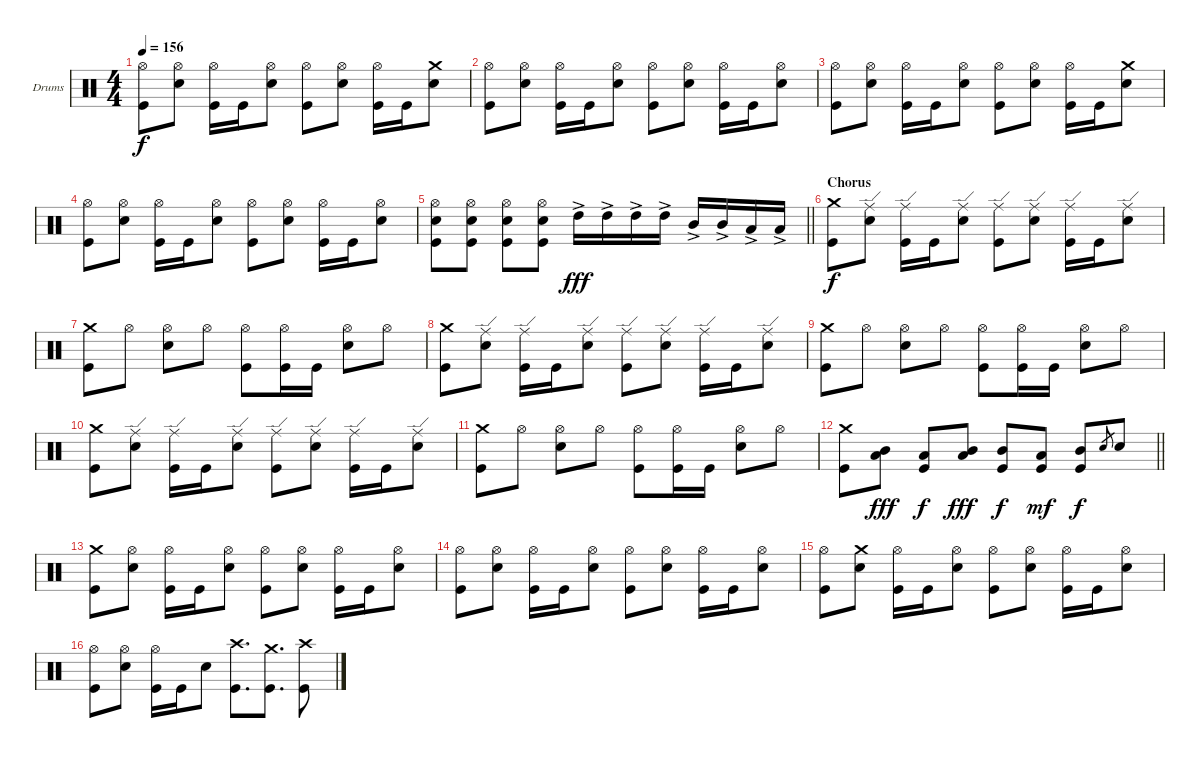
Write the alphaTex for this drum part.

\bracketExtendMode groupsimilarinstruments
\firstSystemTrackNameOrientation horizontal
\otherSystemsTrackNameOrientation horizontal
\track ("Drums" "Drums") {instrument percussion}
\staff {score}
\articulation defaults
\ts (4 4)
\tempo 156
\clef neutral
\ks c
("Hi-Hat (open)" "Kick (hit)").8{dy f} ("Hi-Hat (open)" "Snare (hit) 2").8 ("Hi-Hat (open)" "Kick (hit)").16 "Kick (hit)".16 ("Hi-Hat (open)" "Snare (hit) 2").8 ("Hi-Hat (open)" "Kick (hit)").8 ("Hi-Hat (open)" "Snare (hit) 2").8 ("Hi-Hat (open)" "Kick (hit)").16 "Kick (hit)".16 ("Crash medium (hit)" "Snare (hit) 2").8 |
("Hi-Hat (open)" "Kick (hit)").8 ("Hi-Hat (open)" "Snare (hit) 2").8 ("Hi-Hat (open)" "Kick (hit)").16 "Kick (hit)".16 ("Hi-Hat (open)" "Snare (hit) 2").8 ("Hi-Hat (open)" "Kick (hit)").8 ("Hi-Hat (open)" "Snare (hit) 2").8 ("Hi-Hat (open)" "Kick (hit)").16 "Kick (hit)".16 ("Hi-Hat (open)" "Snare (hit) 2").8 |
("Hi-Hat (open)" "Kick (hit)").8 ("Hi-Hat (open)" "Snare (hit) 2").8 ("Hi-Hat (open)" "Kick (hit)").16 "Kick (hit)".16 ("Hi-Hat (open)" "Snare (hit) 2").8 ("Hi-Hat (open)" "Kick (hit)").8 ("Hi-Hat (open)" "Snare (hit) 2").8 ("Hi-Hat (open)" "Kick (hit)").16 "Kick (hit)".16 ("Crash medium (hit)" "Snare (hit) 2").8 |
("Hi-Hat (open)" "Kick (hit)").8 ("Hi-Hat (open)" "Snare (hit) 2").8 ("Hi-Hat (open)" "Kick (hit)").16 "Kick (hit)".16 ("Hi-Hat (open)" "Snare (hit) 2").8 ("Hi-Hat (open)" "Kick (hit)").8 ("Hi-Hat (open)" "Snare (hit) 2").8 ("Hi-Hat (open)" "Kick (hit)").16 "Kick (hit)".16 ("Hi-Hat (open)" "Snare (hit) 2").8 |
\barLineRight lightlight
("Hi-Hat (open)" "Snare (hit) 2" "Kick (hit)").8 ("Hi-Hat (open)" "Snare (hit) 2" "Kick (hit)").8 ("Hi-Hat (open)" "Snare (hit) 2" "Kick (hit)").8 ("Hi-Hat (open)" "Snare (hit) 2" "Kick (hit)").8 "High Tom (hit)"{ac}.16{dy fff} "High Tom (hit)"{ac}.16 "High Tom (hit)"{ac}.16 "High Tom (hit)"{ac}.16 "Mid Tom (hit)"{ac}.16 "Mid Tom (hit)"{ac}.16 "Low Tom (hit)"{ac}.16 "Low Tom (hit)"{ac}.16 |
\section ("" "Chorus")
("Crash medium (hit)" "Kick (hit)").8{dy f} ("Ride (edge)" "Snare (hit) 2").8 ("Ride (edge)" "Kick (hit)").16 "Kick (hit)".16 ("Ride (edge)" "Snare (hit) 2").8 ("Ride (edge)" "Kick (hit)").8 ("Ride (edge)" "Snare (hit) 2").8 ("Ride (edge)" "Kick (hit)").16 "Kick (hit)".16 ("Ride (edge)" "Snare (hit) 2").8 |
("Crash medium (hit)" "Kick (hit)").8 "Hi-Hat (open)".8 ("Hi-Hat (open)" "Snare (hit) 2").8 "Hi-Hat (open)".8 ("Hi-Hat (open)" "Kick (hit)").8 ("Hi-Hat (open)" "Kick (hit)").16 "Kick (hit)".16 ("Hi-Hat (open)" "Snare (hit) 2").8 "Hi-Hat (open)".8 |
("Crash medium (hit)" "Kick (hit)").8 ("Ride (edge)" "Snare (hit) 2").8 ("Ride (edge)" "Kick (hit)").16 "Kick (hit)".16 ("Ride (edge)" "Snare (hit) 2").8 ("Ride (edge)" "Kick (hit)").8 ("Ride (edge)" "Snare (hit) 2").8 ("Ride (edge)" "Kick (hit)").16 "Kick (hit)".16 ("Ride (edge)" "Snare (hit) 2").8 |
("Crash medium (hit)" "Kick (hit)").8 "Hi-Hat (open)".8 ("Hi-Hat (open)" "Snare (hit) 2").8 "Hi-Hat (open)".8 ("Hi-Hat (open)" "Kick (hit)").8 ("Hi-Hat (open)" "Kick (hit)").16 "Kick (hit)".16 ("Hi-Hat (open)" "Snare (hit) 2").8 "Hi-Hat (open)".8 |
("Crash medium (hit)" "Kick (hit)").8 ("Ride (edge)" "Snare (hit) 2").8 ("Ride (edge)" "Kick (hit)").16 "Kick (hit)".16 ("Ride (edge)" "Snare (hit) 2").8 ("Ride (edge)" "Kick (hit)").8 ("Ride (edge)" "Snare (hit) 2").8 ("Ride (edge)" "Kick (hit)").16 "Kick (hit)".16 ("Ride (edge)" "Snare (hit) 2").8 |
("Crash medium (hit)" "Kick (hit)").8 "Hi-Hat (open)".8 ("Hi-Hat (open)" "Snare (hit) 2").8 "Hi-Hat (open)".8 ("Hi-Hat (open)" "Kick (hit)").8 ("Hi-Hat (open)" "Kick (hit)").16 "Kick (hit)".16 ("Hi-Hat (open)" "Snare (hit) 2").8 "Hi-Hat (open)".8 |
\barLineRight lightlight
("Crash medium (hit)" "Kick (hit)").8 ("Mid Tom (hit)" "Low Tom (hit)").8{dy fff} ("Low Tom (hit)" "Kick (hit)").8{dy f} ("Mid Tom (hit)" "Low Tom (hit)").8{dy fff} ("Kick (hit)" "Mid Tom (hit)").8{dy f} ("Kick (hit)" "Low Tom (hit)").8{dy mf} ("Mid Tom (hit)" "Kick (hit)").8{dy f} "Snare (hit) 2".8{gr} "Snare (hit) 2".8 |
("Crash medium (hit)" "Kick (hit)").8 ("Hi-Hat (open)" "Snare (hit) 2").8 ("Hi-Hat (open)" "Kick (hit)").16 "Kick (hit)".16 ("Hi-Hat (open)" "Snare (hit) 2").8 ("Hi-Hat (open)" "Kick (hit)").8 ("Hi-Hat (open)" "Snare (hit) 2").8 ("Hi-Hat (open)" "Kick (hit)").16 "Kick (hit)".16 ("Hi-Hat (open)" "Snare (hit) 2").8 |
("Hi-Hat (open)" "Kick (hit)").8 ("Hi-Hat (open)" "Snare (hit) 2").8 ("Hi-Hat (open)" "Kick (hit)").16 "Kick (hit)".16 ("Hi-Hat (open)" "Snare (hit) 2").8 ("Hi-Hat (open)" "Kick (hit)").8 ("Hi-Hat (open)" "Snare (hit) 2").8 ("Hi-Hat (open)" "Kick (hit)").16 "Kick (hit)".16 ("Hi-Hat (open)" "Snare (hit) 2").8 |
("Hi-Hat (open)" "Kick (hit)").8 ("Crash medium (hit)" "Snare (hit) 2").8 ("Hi-Hat (open)" "Kick (hit)").16 "Kick (hit)".16 ("Hi-Hat (open)" "Snare (hit) 2").8 ("Hi-Hat (open)" "Kick (hit)").8 ("Hi-Hat (open)" "Snare (hit) 2").8 ("Hi-Hat (open)" "Kick (hit)").16 "Kick (hit)".16 ("Hi-Hat (open)" "Snare (hit) 2").8 |
("Hi-Hat (open)" "Kick (hit)").8 ("Hi-Hat (open)" "Snare (hit) 2").8 ("Hi-Hat (open)" "Kick (hit)").16 "Kick (hit)".16 "Snare (hit) 2".8 ("Crash high (hit)" "Kick (hit)").8{d} ("Crash medium (hit)" "Kick (hit)").8{d} ("Crash high (hit)" "Kick (hit)").8
